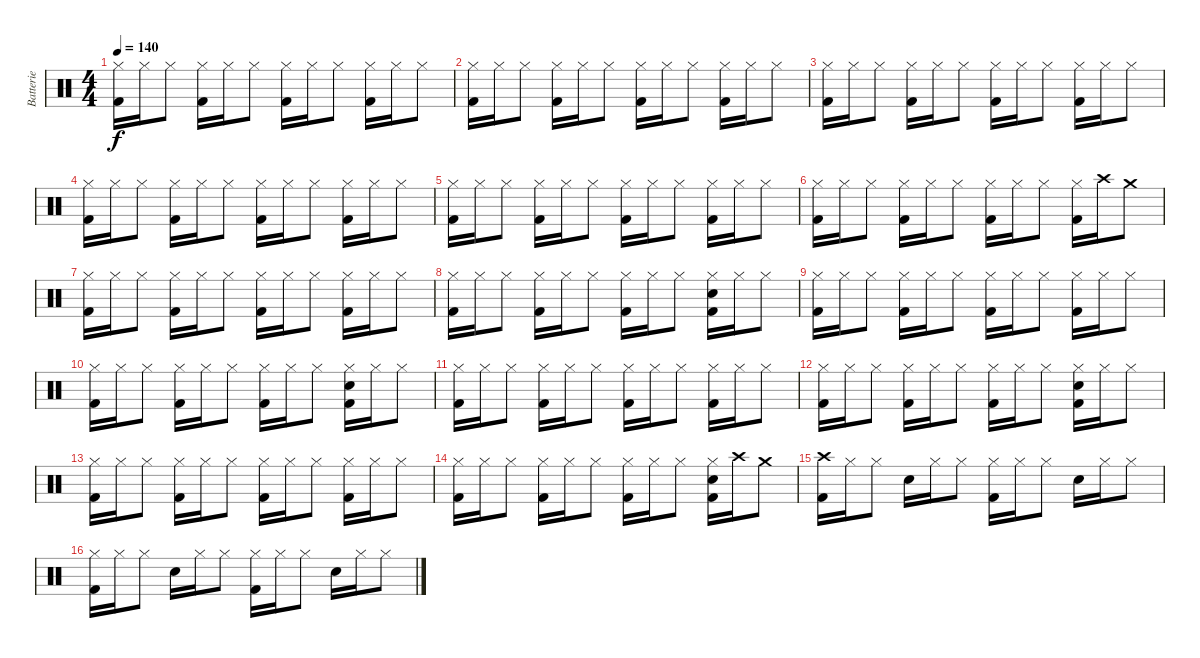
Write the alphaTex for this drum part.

\track ("Batterie" "Batterie") {instrument percussion}
\staff {score}
\articulation defaults
\ts (4 4)
\tempo 140
\clef neutral
\ks c
("Hi-Hat (closed)" "Kick (hit) 2").16{dy f} "Hi-Hat (closed)".16 "Hi-Hat (closed)".8 ("Hi-Hat (closed)" "Kick (hit) 2").16 "Hi-Hat (closed)".16 "Hi-Hat (closed)".8 ("Hi-Hat (closed)" "Kick (hit) 2").16 "Hi-Hat (closed)".16 "Hi-Hat (closed)".8 ("Hi-Hat (closed)" "Kick (hit) 2").16 "Hi-Hat (closed)".16 "Hi-Hat (closed)".8 |
("Hi-Hat (closed)" "Kick (hit) 2").16 "Hi-Hat (closed)".16 "Hi-Hat (closed)".8 ("Hi-Hat (closed)" "Kick (hit) 2").16 "Hi-Hat (closed)".16 "Hi-Hat (closed)".8 ("Hi-Hat (closed)" "Kick (hit) 2").16 "Hi-Hat (closed)".16 "Hi-Hat (closed)".8 ("Hi-Hat (closed)" "Kick (hit) 2").16 "Hi-Hat (closed)".16 "Hi-Hat (closed)".8 |
("Hi-Hat (closed)" "Kick (hit) 2").16 "Hi-Hat (closed)".16 "Hi-Hat (closed)".8 ("Hi-Hat (closed)" "Kick (hit) 2").16 "Hi-Hat (closed)".16 "Hi-Hat (closed)".8 ("Hi-Hat (closed)" "Kick (hit) 2").16 "Hi-Hat (closed)".16 "Hi-Hat (closed)".8 ("Hi-Hat (closed)" "Kick (hit) 2").16 "Hi-Hat (closed)".16 "Hi-Hat (closed)".8 |
("Hi-Hat (closed)" "Kick (hit) 2").16 "Hi-Hat (closed)".16 "Hi-Hat (closed)".8 ("Hi-Hat (closed)" "Kick (hit) 2").16 "Hi-Hat (closed)".16 "Hi-Hat (closed)".8 ("Hi-Hat (closed)" "Kick (hit) 2").16 "Hi-Hat (closed)".16 "Hi-Hat (closed)".8 ("Hi-Hat (closed)" "Kick (hit) 2").16 "Hi-Hat (closed)".16 "Hi-Hat (closed)".8 |
("Hi-Hat (closed)" "Kick (hit) 2").16 "Hi-Hat (closed)".16 "Hi-Hat (closed)".8 ("Hi-Hat (closed)" "Kick (hit) 2").16 "Hi-Hat (closed)".16 "Hi-Hat (closed)".8 ("Hi-Hat (closed)" "Kick (hit) 2").16 "Hi-Hat (closed)".16 "Hi-Hat (closed)".8 ("Hi-Hat (closed)" "Kick (hit) 2").16 "Hi-Hat (closed)".16 "Hi-Hat (closed)".8 |
("Hi-Hat (closed)" "Kick (hit) 2").16 "Hi-Hat (closed)".16 "Hi-Hat (closed)".8 ("Hi-Hat (closed)" "Kick (hit) 2").16 "Hi-Hat (closed)".16 "Hi-Hat (closed)".8 ("Hi-Hat (closed)" "Kick (hit) 2").16 "Hi-Hat (closed)".16 "Hi-Hat (closed)".8 ("Hi-Hat (closed)" "Kick (hit) 2").16 "Crash high (hit)".16 "Crash medium (hit)".8 |
("Hi-Hat (closed)" "Kick (hit) 2").16 "Hi-Hat (closed)".16 "Hi-Hat (closed)".8 ("Hi-Hat (closed)" "Kick (hit) 2").16 "Hi-Hat (closed)".16 "Hi-Hat (closed)".8 ("Hi-Hat (closed)" "Kick (hit) 2").16 "Hi-Hat (closed)".16 "Hi-Hat (closed)".8 ("Hi-Hat (closed)" "Kick (hit) 2").16 "Hi-Hat (closed)".16 "Hi-Hat (closed)".8 |
("Hi-Hat (closed)" "Kick (hit) 2").16 "Hi-Hat (closed)".16 "Hi-Hat (closed)".8 ("Hi-Hat (closed)" "Kick (hit) 2").16 "Hi-Hat (closed)".16 "Hi-Hat (closed)".8 ("Hi-Hat (closed)" "Kick (hit) 2").16 "Hi-Hat (closed)".16 "Hi-Hat (closed)".8 ("Hi-Hat (closed)" "Snare (hit) 2" "Kick (hit) 2").16 "Hi-Hat (closed)".16 "Hi-Hat (closed)".8 |
("Hi-Hat (closed)" "Kick (hit) 2").16 "Hi-Hat (closed)".16 "Hi-Hat (closed)".8 ("Hi-Hat (closed)" "Kick (hit) 2").16 "Hi-Hat (closed)".16 "Hi-Hat (closed)".8 ("Hi-Hat (closed)" "Kick (hit) 2").16 "Hi-Hat (closed)".16 "Hi-Hat (closed)".8 ("Hi-Hat (closed)" "Kick (hit) 2").16 "Hi-Hat (closed)".16 "Hi-Hat (closed)".8 |
("Hi-Hat (closed)" "Kick (hit) 2").16 "Hi-Hat (closed)".16 "Hi-Hat (closed)".8 ("Hi-Hat (closed)" "Kick (hit) 2").16 "Hi-Hat (closed)".16 "Hi-Hat (closed)".8 ("Hi-Hat (closed)" "Kick (hit) 2").16 "Hi-Hat (closed)".16 "Hi-Hat (closed)".8 ("Hi-Hat (closed)" "Snare (hit) 2" "Kick (hit) 2").16 "Hi-Hat (closed)".16 "Hi-Hat (closed)".8 |
("Hi-Hat (closed)" "Kick (hit) 2").16 "Hi-Hat (closed)".16 "Hi-Hat (closed)".8 ("Hi-Hat (closed)" "Kick (hit) 2").16 "Hi-Hat (closed)".16 "Hi-Hat (closed)".8 ("Hi-Hat (closed)" "Kick (hit) 2").16 "Hi-Hat (closed)".16 "Hi-Hat (closed)".8 ("Hi-Hat (closed)" "Kick (hit) 2").16 "Hi-Hat (closed)".16 "Hi-Hat (closed)".8 |
("Hi-Hat (closed)" "Kick (hit) 2").16 "Hi-Hat (closed)".16 "Hi-Hat (closed)".8 ("Hi-Hat (closed)" "Kick (hit) 2").16 "Hi-Hat (closed)".16 "Hi-Hat (closed)".8 ("Hi-Hat (closed)" "Kick (hit) 2").16 "Hi-Hat (closed)".16 "Hi-Hat (closed)".8 ("Hi-Hat (closed)" "Snare (hit) 2" "Kick (hit) 2").16 "Hi-Hat (closed)".16 "Hi-Hat (closed)".8 |
("Hi-Hat (closed)" "Kick (hit) 2").16 "Hi-Hat (closed)".16 "Hi-Hat (closed)".8 ("Hi-Hat (closed)" "Kick (hit) 2").16 "Hi-Hat (closed)".16 "Hi-Hat (closed)".8 ("Hi-Hat (closed)" "Kick (hit) 2").16 "Hi-Hat (closed)".16 "Hi-Hat (closed)".8 ("Hi-Hat (closed)" "Kick (hit) 2").16 "Hi-Hat (closed)".16 "Hi-Hat (closed)".8 |
("Hi-Hat (closed)" "Kick (hit) 2").16 "Hi-Hat (closed)".16 "Hi-Hat (closed)".8 ("Hi-Hat (closed)" "Kick (hit) 2").16 "Hi-Hat (closed)".16 "Hi-Hat (closed)".8 ("Hi-Hat (closed)" "Kick (hit) 2").16 "Hi-Hat (closed)".16 "Hi-Hat (closed)".8 ("Hi-Hat (closed)" "Snare (hit) 2" "Kick (hit) 2").16 "Crash high (hit)".16 "Crash medium (hit)".8 |
("Crash high (hit)" "Kick (hit) 2").16 "Hi-Hat (closed)".16 "Hi-Hat (closed)".8 "Snare (hit) 2".16 "Hi-Hat (closed)".16 "Hi-Hat (closed)".8 ("Hi-Hat (closed)" "Kick (hit) 2").16 "Hi-Hat (closed)".16 "Hi-Hat (closed)".8 "Snare (hit) 2".16 "Hi-Hat (closed)".16 "Hi-Hat (closed)".8 |
("Hi-Hat (closed)" "Kick (hit) 2").16 "Hi-Hat (closed)".16 "Hi-Hat (closed)".8 "Snare (hit) 2".16 "Hi-Hat (closed)".16 "Hi-Hat (closed)".8 ("Hi-Hat (closed)" "Kick (hit) 2").16 "Hi-Hat (closed)".16 "Hi-Hat (closed)".8 "Snare (hit) 2".16 "Hi-Hat (closed)".16 "Hi-Hat (closed)".8
